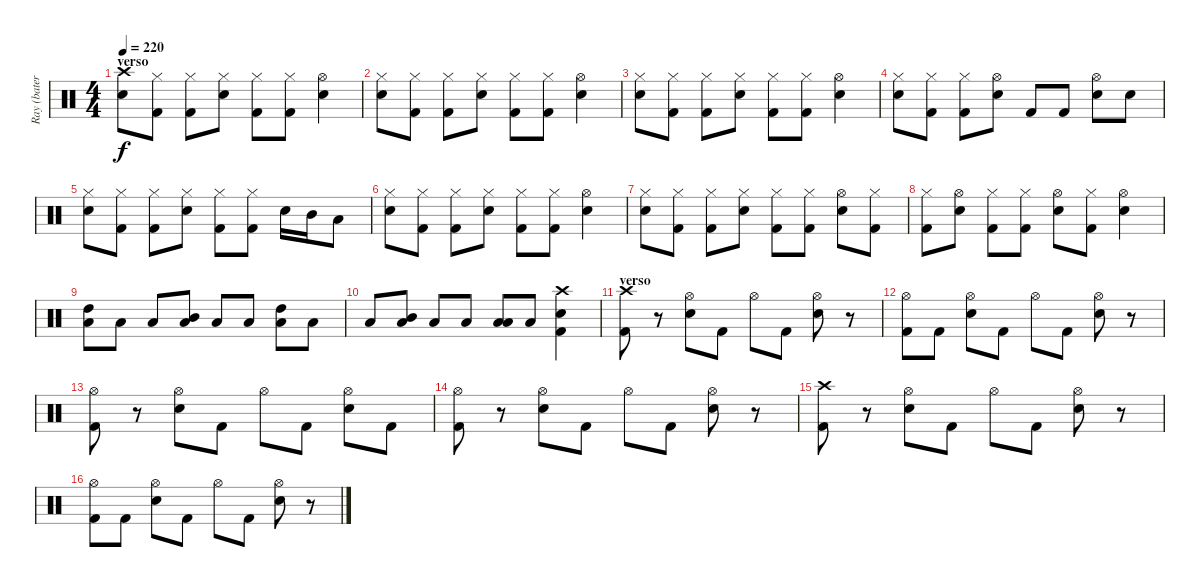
\track ("Ray (batería)" "Ray (bater") {instrument percussion}
\staff {score}
\articulation defaults
\ts (4 4)
\section ("" "verso")
\tempo 220
\clef neutral
\ks c
("Crash high (hit)" "Snare (hit) 2").8{dy f} ("Hi-Hat (closed)" "Kick (hit) 2").8 ("Hi-Hat (closed)" "Kick (hit) 2").8 ("Hi-Hat (closed)" "Snare (hit) 2").8 ("Hi-Hat (closed)" "Kick (hit) 2").8 ("Hi-Hat (closed)" "Kick (hit) 2").8 ("Hi-Hat (open)" "Snare (hit) 2").4 |
("Hi-Hat (closed)" "Snare (hit) 2").8 ("Hi-Hat (closed)" "Kick (hit) 2").8 ("Hi-Hat (closed)" "Kick (hit) 2").8 ("Hi-Hat (closed)" "Snare (hit) 2").8 ("Hi-Hat (closed)" "Kick (hit) 2").8 ("Hi-Hat (closed)" "Kick (hit) 2").8 ("Hi-Hat (open)" "Snare (hit) 2").4 |
("Hi-Hat (closed)" "Snare (hit) 2").8 ("Hi-Hat (closed)" "Kick (hit) 2").8 ("Hi-Hat (closed)" "Kick (hit) 2").8 ("Hi-Hat (closed)" "Snare (hit) 2").8 ("Hi-Hat (closed)" "Kick (hit) 2").8 ("Hi-Hat (closed)" "Kick (hit) 2").8 ("Hi-Hat (open)" "Snare (hit) 2").4 |
("Hi-Hat (closed)" "Snare (hit) 2").8 ("Hi-Hat (closed)" "Kick (hit) 2").8 ("Hi-Hat (closed)" "Kick (hit) 2").8 ("Hi-Hat (open)" "Snare (hit) 2").8 "Kick (hit) 2".8 "Kick (hit) 2".8 ("Hi-Hat (open)" "Snare (hit) 2").8 "Snare (hit) 2".8 |
("Hi-Hat (closed)" "Snare (hit) 2").8 ("Hi-Hat (closed)" "Kick (hit) 2").8 ("Hi-Hat (closed)" "Kick (hit) 2").8 ("Hi-Hat (closed)" "Snare (hit) 2").8 ("Hi-Hat (closed)" "Kick (hit) 2").8 ("Hi-Hat (closed)" "Kick (hit) 2").8 "Snare (hit) 2".16 "Mid Tom (hit)".16 "Low Tom (hit)".8 |
("Hi-Hat (closed)" "Snare (hit) 2").8 ("Hi-Hat (closed)" "Kick (hit) 2").8 ("Hi-Hat (closed)" "Kick (hit) 2").8 ("Hi-Hat (closed)" "Snare (hit) 2").8 ("Hi-Hat (closed)" "Kick (hit) 2").8 ("Hi-Hat (closed)" "Kick (hit) 2").8 ("Hi-Hat (open)" "Snare (hit) 2").4 |
("Hi-Hat (closed)" "Snare (hit) 2").8 ("Hi-Hat (closed)" "Kick (hit) 2").8 ("Hi-Hat (closed)" "Kick (hit) 2").8 ("Hi-Hat (closed)" "Snare (hit) 2").8 ("Hi-Hat (closed)" "Kick (hit) 2").8 ("Hi-Hat (closed)" "Kick (hit) 2").8 ("Hi-Hat (open)" "Snare (hit) 2").8 ("Hi-Hat (closed)" "Kick (hit) 2").8 |
("Hi-Hat (closed)" "Kick (hit) 2").8 ("Hi-Hat (open)" "Snare (hit) 2").8 ("Hi-Hat (closed)" "Kick (hit) 2").8 ("Hi-Hat (closed)" "Kick (hit) 2").8 ("Hi-Hat (open)" "Snare (hit) 2").8 ("Hi-Hat (closed)" "Kick (hit) 2").8 ("Hi-Hat (open)" "Snare (hit) 2").4 |
("High Tom (hit)" "Low Tom (hit)").8 "Low Tom (hit)".8 "Low Tom (hit)".8 ("Mid Tom (hit)" "Low Tom (hit)").8 "Low Tom (hit)".8 "Low Tom (hit)".8 ("High Tom (hit)" "Low Tom (hit)").8 "Low Tom (hit)".8 |
"Low Tom (hit)".8 ("Mid Tom (hit)" "Low Tom (hit)").8 "Low Tom (hit)".8 "Low Tom (hit)".8 ("Low Tom (hit)" "Low Floor Tom (hit)").8 "Low Tom (hit)".8 ("Crash high (hit)" "Snare (hit) 2" "Kick (hit) 2").4 |
\section ("" "verso")
("Crash high (hit)" "Kick (hit) 2").8 r.8 ("Hi-Hat (open)" "Snare (hit) 2").8 "Kick (hit) 2".8 "Hi-Hat (open)".8 "Kick (hit) 2".8 ("Hi-Hat (open)" "Snare (hit) 2").8 r.8 |
("Hi-Hat (open)" "Kick (hit) 2").8 "Kick (hit) 2".8 ("Hi-Hat (open)" "Snare (hit) 2").8 "Kick (hit) 2".8 "Hi-Hat (open)".8 "Kick (hit) 2".8 ("Hi-Hat (open)" "Snare (hit) 2").8 r.8 |
("Hi-Hat (open)" "Kick (hit) 2").8 r.8 ("Hi-Hat (open)" "Snare (hit) 2").8 "Kick (hit) 2".8 "Hi-Hat (open)".8 "Kick (hit) 2".8 ("Hi-Hat (open)" "Snare (hit) 2").8 "Kick (hit) 2".8 |
("Hi-Hat (open)" "Kick (hit) 2").8 r.8 ("Hi-Hat (open)" "Snare (hit) 2").8 "Kick (hit) 2".8 "Hi-Hat (open)".8 "Kick (hit) 2".8 ("Hi-Hat (open)" "Snare (hit) 2").8 r.8 |
("Crash high (hit)" "Kick (hit) 2").8 r.8 ("Hi-Hat (open)" "Snare (hit) 2").8 "Kick (hit) 2".8 "Hi-Hat (open)".8 "Kick (hit) 2".8 ("Hi-Hat (open)" "Snare (hit) 2").8 r.8 |
("Hi-Hat (open)" "Kick (hit) 2").8 "Kick (hit) 2".8 ("Hi-Hat (open)" "Snare (hit) 2").8 "Kick (hit) 2".8 "Hi-Hat (open)".8 "Kick (hit) 2".8 ("Hi-Hat (open)" "Snare (hit) 2").8 r.8
